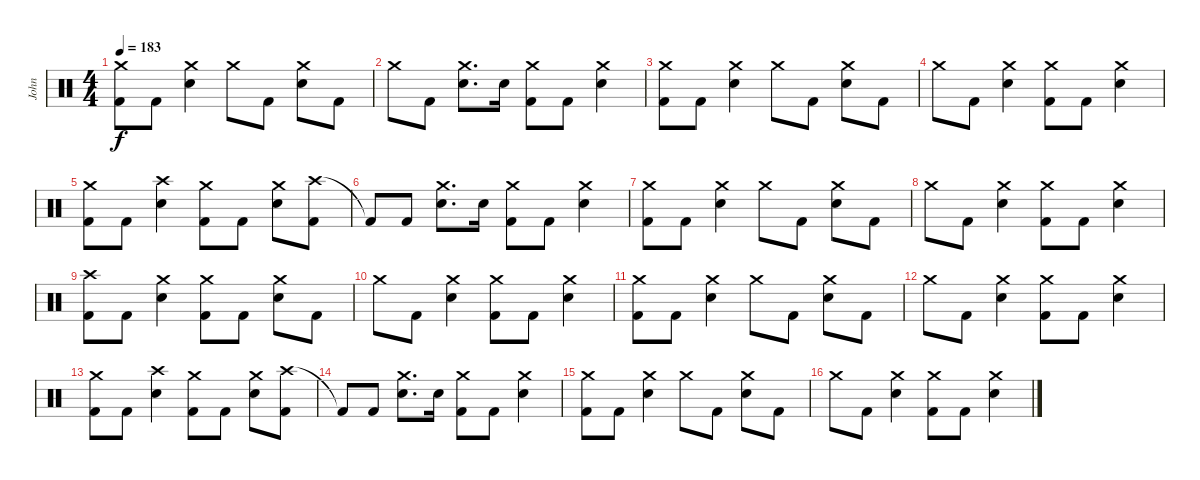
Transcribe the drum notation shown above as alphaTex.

\track ("John " "John ") {instrument percussion}
\staff {score}
\articulation defaults
\ts (4 4)
\tempo 183
\clef neutral
\ks c
("Crash medium (hit)" "Kick (hit) 2").8{dy f} "Kick (hit) 2".8 ("Crash medium (hit)" "Snare (hit) 2").4 "Crash medium (hit)".8 "Kick (hit) 2".8 ("Crash medium (hit)" "Snare (hit) 2").8 "Kick (hit) 2".8 |
"Crash medium (hit)".8 "Kick (hit) 2".8 ("Crash medium (hit)" "Snare (hit) 2").8{d} "Snare (hit) 2".16 ("Crash medium (hit)" "Kick (hit) 2").8 "Kick (hit) 2".8 ("Crash medium (hit)" "Snare (hit) 2").4 |
("Crash medium (hit)" "Kick (hit) 2").8 "Kick (hit) 2".8 ("Crash medium (hit)" "Snare (hit) 2").4 "Crash medium (hit)".8 "Kick (hit) 2".8 ("Crash medium (hit)" "Snare (hit) 2").8 "Kick (hit) 2".8 |
"Crash medium (hit)".8 "Kick (hit) 2".8 ("Crash medium (hit)" "Snare (hit) 2").4 ("Crash medium (hit)" "Kick (hit) 2").8 "Kick (hit) 2".8 ("Crash medium (hit)" "Snare (hit) 2").4 |
("Crash medium (hit)" "Kick (hit) 2").8 "Kick (hit) 2".8 ("Crash high (hit)" "Snare (hit) 2").4 ("Crash medium (hit)" "Kick (hit) 2").8 "Kick (hit) 2".8 ("Crash medium (hit)" "Snare (hit) 2").8 ("Crash high (hit)" "Kick (hit) 2").8 |
"Kick (hit) 2"{t}.8 "Kick (hit) 2".8 ("Crash medium (hit)" "Snare (hit) 2").8{d} "Snare (hit) 2".16 ("Crash medium (hit)" "Kick (hit) 2").8 "Kick (hit) 2".8 ("Crash medium (hit)" "Snare (hit) 2").4 |
("Crash medium (hit)" "Kick (hit) 2").8 "Kick (hit) 2".8 ("Crash medium (hit)" "Snare (hit) 2").4 "Crash medium (hit)".8 "Kick (hit) 2".8 ("Crash medium (hit)" "Snare (hit) 2").8 "Kick (hit) 2".8 |
"Crash medium (hit)".8 "Kick (hit) 2".8 ("Crash medium (hit)" "Snare (hit) 2").4 ("Crash medium (hit)" "Kick (hit) 2").8 "Kick (hit) 2".8 ("Crash medium (hit)" "Snare (hit) 2").4 |
("Crash high (hit)" "Kick (hit) 2").8 "Kick (hit) 2".8 ("Crash medium (hit)" "Snare (hit) 2").4 ("Crash medium (hit)" "Kick (hit) 2").8 "Kick (hit) 2".8 ("Crash medium (hit)" "Snare (hit) 2").8 "Kick (hit) 2".8 |
"Crash medium (hit)".8 "Kick (hit) 2".8 ("Crash medium (hit)" "Snare (hit) 2").4 ("Crash medium (hit)" "Kick (hit) 2").8 "Kick (hit) 2".8 ("Crash medium (hit)" "Snare (hit) 2").4 |
("Crash medium (hit)" "Kick (hit) 2").8 "Kick (hit) 2".8 ("Crash medium (hit)" "Snare (hit) 2").4 "Crash medium (hit)".8 "Kick (hit) 2".8 ("Crash medium (hit)" "Snare (hit) 2").8 "Kick (hit) 2".8 |
"Crash medium (hit)".8 "Kick (hit) 2".8 ("Crash medium (hit)" "Snare (hit) 2").4 ("Crash medium (hit)" "Kick (hit) 2").8 "Kick (hit) 2".8 ("Crash medium (hit)" "Snare (hit) 2").4 |
("Crash medium (hit)" "Kick (hit) 2").8 "Kick (hit) 2".8 ("Crash high (hit)" "Snare (hit) 2").4 ("Crash medium (hit)" "Kick (hit) 2").8 "Kick (hit) 2".8 ("Crash medium (hit)" "Snare (hit) 2").8 ("Crash high (hit)" "Kick (hit) 2").8 |
"Kick (hit) 2"{t}.8 "Kick (hit) 2".8 ("Crash medium (hit)" "Snare (hit) 2").8{d} "Snare (hit) 2".16 ("Crash medium (hit)" "Kick (hit) 2").8 "Kick (hit) 2".8 ("Crash medium (hit)" "Snare (hit) 2").4 |
("Crash medium (hit)" "Kick (hit) 2").8 "Kick (hit) 2".8 ("Crash medium (hit)" "Snare (hit) 2").4 "Crash medium (hit)".8 "Kick (hit) 2".8 ("Crash medium (hit)" "Snare (hit) 2").8 "Kick (hit) 2".8 |
"Crash medium (hit)".8 "Kick (hit) 2".8 ("Crash medium (hit)" "Snare (hit) 2").4 ("Crash medium (hit)" "Kick (hit) 2").8 "Kick (hit) 2".8 ("Crash medium (hit)" "Snare (hit) 2").4
